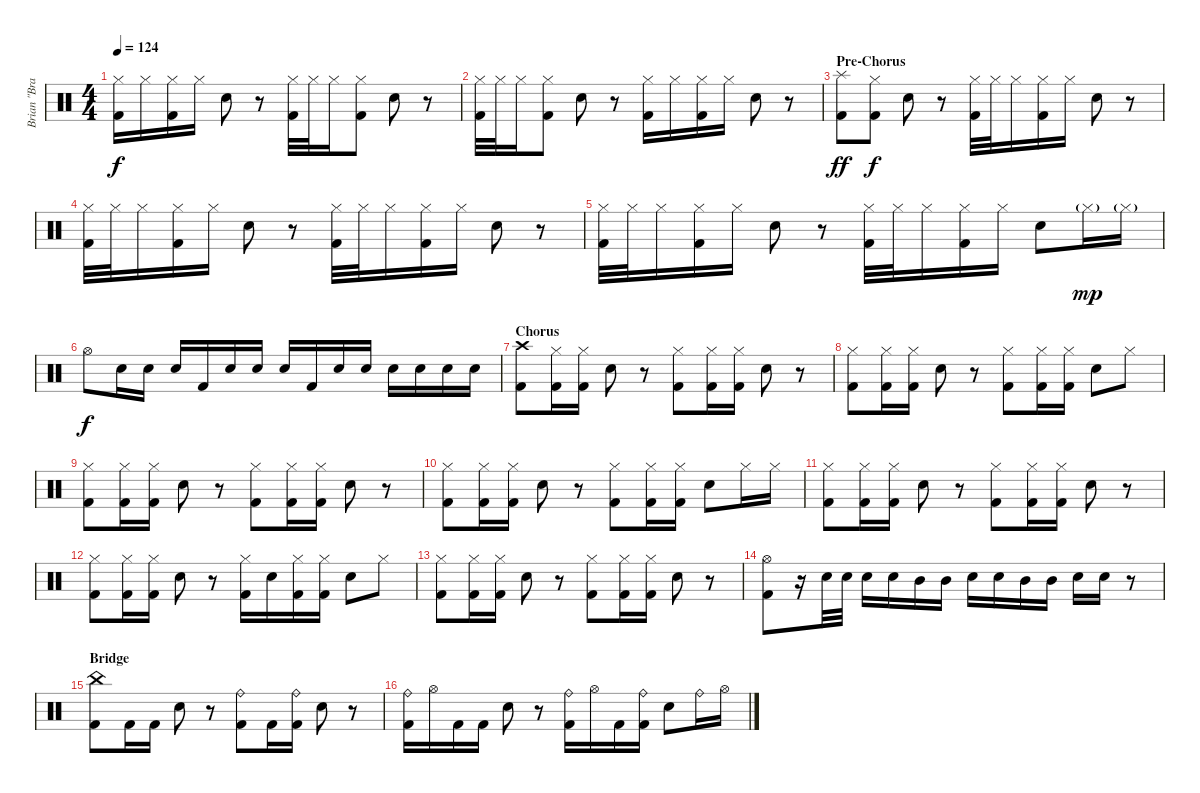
\track ("Brian \"Brain\" Mantia / Drums" "Brian \"Bra") {instrument percussion}
\staff {score}
\articulation defaults
\ts (4 4)
\tempo 124
\clef neutral
\ks c
("Hi-Hat (closed)" "Kick (hit) 2").16{dy f} "Hi-Hat (closed)".16 ("Hi-Hat (closed)" "Kick (hit) 2").16 "Hi-Hat (closed)".16 "Electric Snare (hit)".8 r.8 ("Hi-Hat (closed)" "Kick (hit) 2").32 "Hi-Hat (closed)".32 "Hi-Hat (closed)".16 ("Hi-Hat (closed)" "Kick (hit) 2").8 "Electric Snare (hit)".8 r.8 |
("Hi-Hat (closed)" "Kick (hit) 2").32 "Hi-Hat (closed)".32 "Hi-Hat (closed)".16 ("Hi-Hat (closed)" "Kick (hit) 2").8 "Electric Snare (hit)".8 r.8 ("Hi-Hat (closed)" "Kick (hit) 2").16 "Hi-Hat (closed)".16 ("Hi-Hat (closed)" "Kick (hit) 2").16 "Hi-Hat (closed)".16 "Electric Snare (hit)".8 r.8 |
\section ("" "Pre-Chorus")
("Splash (hit)" "Kick (hit) 2").8{dy ff} ("Hi-Hat (closed)" "Kick (hit) 2").8{dy f} "Electric Snare (hit)".8 r.8 ("Hi-Hat (closed)" "Kick (hit) 2").32 "Hi-Hat (closed)".32 "Hi-Hat (closed)".16 ("Hi-Hat (closed)" "Kick (hit) 2").16 "Hi-Hat (closed)".16 "Electric Snare (hit)".8 r.8 |
("Hi-Hat (closed)" "Kick (hit) 2").32 "Hi-Hat (closed)".32 "Hi-Hat (closed)".16 ("Hi-Hat (closed)" "Kick (hit) 2").16 "Hi-Hat (closed)".16 "Electric Snare (hit)".8 r.8 ("Hi-Hat (closed)" "Kick (hit) 2").32 "Hi-Hat (closed)".32 "Hi-Hat (closed)".16 ("Hi-Hat (closed)" "Kick (hit) 2").16 "Hi-Hat (closed)".16 "Electric Snare (hit)".8 r.8 |
("Hi-Hat (closed)" "Kick (hit) 2").32 "Hi-Hat (closed)".32 "Hi-Hat (closed)".16 ("Hi-Hat (closed)" "Kick (hit) 2").16 "Hi-Hat (closed)".16 "Electric Snare (hit)".8 r.8 ("Hi-Hat (closed)" "Kick (hit) 2").32 "Hi-Hat (closed)".32 "Hi-Hat (closed)".16 ("Hi-Hat (closed)" "Kick (hit) 2").16 "Hi-Hat (closed)".16 "Electric Snare (hit)".8 "Hi-Hat (closed)"{g}.16{dy mp} "Hi-Hat (closed)"{g}.16 |
"Hi-Hat (open)".8{dy f} "Electric Snare (hit)".16 "Electric Snare (hit)".16 "Electric Snare (hit)".16 "Kick (hit) 2".16 "Electric Snare (hit)".16 "Electric Snare (hit)".16 "Electric Snare (hit)".16 "Kick (hit) 2".16 "Electric Snare (hit)".16 "Electric Snare (hit)".16 "Electric Snare (hit)".16 "Electric Snare (hit)".16 "Electric Snare (hit)".16 "Electric Snare (hit)".16 |
\section ("" "Chorus")
("Crash high (hit)" "Kick (hit) 2").8 ("Hi-Hat (closed)" "Kick (hit) 2").16 ("Hi-Hat (closed)" "Kick (hit) 2").16 "Electric Snare (hit)".8 r.8 ("Hi-Hat (closed)" "Kick (hit) 2").8 ("Hi-Hat (closed)" "Kick (hit) 2").16 ("Hi-Hat (closed)" "Kick (hit) 2").16 "Electric Snare (hit)".8 r.8 |
("Hi-Hat (closed)" "Kick (hit) 2").8 ("Hi-Hat (closed)" "Kick (hit) 2").16 ("Hi-Hat (closed)" "Kick (hit) 2").16 "Electric Snare (hit)".8 r.8 ("Hi-Hat (closed)" "Kick (hit) 2").8 ("Hi-Hat (closed)" "Kick (hit) 2").16 ("Hi-Hat (closed)" "Kick (hit) 2").16 "Electric Snare (hit)".8 "Hi-Hat (closed)".8 |
("Hi-Hat (closed)" "Kick (hit) 2").8 ("Hi-Hat (closed)" "Kick (hit) 2").16 ("Hi-Hat (closed)" "Kick (hit) 2").16 "Electric Snare (hit)".8 r.8 ("Hi-Hat (closed)" "Kick (hit) 2").8 ("Hi-Hat (closed)" "Kick (hit) 2").16 ("Hi-Hat (closed)" "Kick (hit) 2").16 "Electric Snare (hit)".8 r.8 |
("Hi-Hat (closed)" "Kick (hit) 2").8 ("Hi-Hat (closed)" "Kick (hit) 2").16 ("Hi-Hat (closed)" "Kick (hit) 2").16 "Electric Snare (hit)".8 r.8 ("Hi-Hat (closed)" "Kick (hit) 2").8 ("Hi-Hat (closed)" "Kick (hit) 2").16 ("Hi-Hat (closed)" "Kick (hit) 2").16 "Electric Snare (hit)".8 "Hi-Hat (closed)".16 "Hi-Hat (closed)".16 |
("Hi-Hat (closed)" "Kick (hit) 2").8 ("Hi-Hat (closed)" "Kick (hit) 2").16 ("Hi-Hat (closed)" "Kick (hit) 2").16 "Electric Snare (hit)".8 r.8 ("Hi-Hat (closed)" "Kick (hit) 2").8 ("Hi-Hat (closed)" "Kick (hit) 2").16 ("Hi-Hat (closed)" "Kick (hit) 2").16 "Electric Snare (hit)".8 r.8 |
("Hi-Hat (closed)" "Kick (hit) 2").8 ("Hi-Hat (closed)" "Kick (hit) 2").16 ("Hi-Hat (closed)" "Kick (hit) 2").16 "Electric Snare (hit)".8 r.8 ("Hi-Hat (closed)" "Kick (hit) 2").16 "Electric Snare (hit)".16 ("Hi-Hat (closed)" "Kick (hit) 2").16 ("Hi-Hat (closed)" "Kick (hit) 2").16 "Electric Snare (hit)".8 "Hi-Hat (closed)".8 |
("Hi-Hat (closed)" "Kick (hit) 2").8 ("Hi-Hat (closed)" "Kick (hit) 2").16 ("Hi-Hat (closed)" "Kick (hit) 2").16 "Electric Snare (hit)".8 r.8 ("Hi-Hat (closed)" "Kick (hit) 2").8 ("Hi-Hat (closed)" "Kick (hit) 2").16 ("Hi-Hat (closed)" "Kick (hit) 2").16 "Electric Snare (hit)".8 r.8 |
("Hi-Hat (open)" "Kick (hit) 2").8 r.16 "Electric Snare (hit)".32 "Electric Snare (hit)".32 "Electric Snare (hit)".16 "Electric Snare (hit)".16 "Mid Tom (hit)".16 "Mid Tom (hit)".16 "Electric Snare (hit)".16 "Electric Snare (hit)".16 "Mid Tom (hit)".16 "Mid Tom (hit)".16 "Electric Snare (hit)".16 "Electric Snare (hit)".16 r.8 |
\section ("" "Bridge")
("China (hit)" "Kick (hit) 2").8 "Kick (hit) 2".16 "Kick (hit) 2".16 "Electric Snare (hit)".8 r.8 ("Ride (bell)" "Kick (hit) 2").8 "Kick (hit) 2".16 ("Ride (bell)" "Kick (hit) 2").16 "Electric Snare (hit)".8 r.8 |
("Ride (bell)" "Kick (hit) 2").16 "Hi-Hat (open)".16 "Kick (hit) 2".16 "Kick (hit) 2".16 "Electric Snare (hit)".8 r.8 ("Ride (bell)" "Kick (hit) 2").16 "Hi-Hat (open)".16 "Kick (hit) 2".16 ("Ride (bell)" "Kick (hit) 2").16 "Electric Snare (hit)".8 "Ride (bell)".16 "Hi-Hat (open)".16
